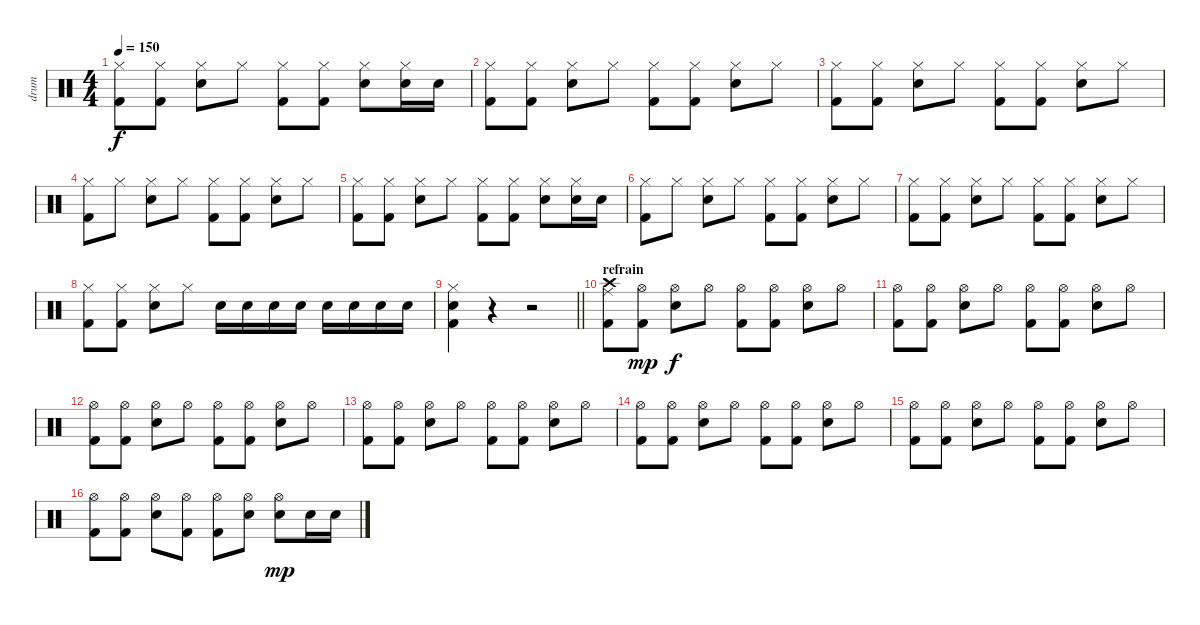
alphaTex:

\track ("drum" "drum") {instrument percussion}
\staff {score}
\articulation defaults
\ts (4 4)
\tempo 150
\clef neutral
\ks c
("Hi-Hat (closed)" "Kick (hit) 2").8{dy f} ("Hi-Hat (closed)" "Kick (hit) 2").8 ("Hi-Hat (closed)" "Snare (hit) 2").8 "Hi-Hat (closed)".8 ("Hi-Hat (closed)" "Kick (hit) 2").8 ("Hi-Hat (closed)" "Kick (hit) 2").8 ("Hi-Hat (closed)" "Snare (hit) 2").8 ("Hi-Hat (closed)" "Snare (hit) 2").16 "Snare (hit) 2".16 |
("Hi-Hat (closed)" "Kick (hit) 2").8 ("Hi-Hat (closed)" "Kick (hit) 2").8 ("Hi-Hat (closed)" "Snare (hit) 2").8 "Hi-Hat (closed)".8 ("Hi-Hat (closed)" "Kick (hit) 2").8 ("Hi-Hat (closed)" "Kick (hit) 2").8 ("Hi-Hat (closed)" "Snare (hit) 2").8 "Hi-Hat (closed)".8 |
("Hi-Hat (closed)" "Kick (hit) 2").8 ("Hi-Hat (closed)" "Kick (hit) 2").8 ("Hi-Hat (closed)" "Snare (hit) 2").8 "Hi-Hat (closed)".8 ("Hi-Hat (closed)" "Kick (hit) 2").8 ("Hi-Hat (closed)" "Kick (hit) 2").8 ("Hi-Hat (closed)" "Snare (hit) 2").8 "Hi-Hat (closed)".8 |
("Hi-Hat (closed)" "Kick (hit) 2").8 "Hi-Hat (closed)".8 ("Hi-Hat (closed)" "Snare (hit) 2").8 "Hi-Hat (closed)".8 ("Hi-Hat (closed)" "Kick (hit) 2").8 ("Hi-Hat (closed)" "Kick (hit) 2").8 ("Hi-Hat (closed)" "Snare (hit) 2").8 "Hi-Hat (closed)".8 |
("Hi-Hat (closed)" "Kick (hit) 2").8 ("Hi-Hat (closed)" "Kick (hit) 2").8 ("Hi-Hat (closed)" "Snare (hit) 2").8 "Hi-Hat (closed)".8 ("Hi-Hat (closed)" "Kick (hit) 2").8 ("Hi-Hat (closed)" "Kick (hit) 2").8 ("Hi-Hat (closed)" "Snare (hit) 2").8 ("Hi-Hat (closed)" "Snare (hit) 2").16 "Snare (hit) 2".16 |
("Hi-Hat (closed)" "Kick (hit) 2").8 "Hi-Hat (closed)".8 ("Hi-Hat (closed)" "Snare (hit) 2").8 "Hi-Hat (closed)".8 ("Hi-Hat (closed)" "Kick (hit) 2").8 ("Hi-Hat (closed)" "Kick (hit) 2").8 ("Hi-Hat (closed)" "Snare (hit) 2").8 "Hi-Hat (closed)".8 |
("Hi-Hat (closed)" "Kick (hit) 2").8 ("Hi-Hat (closed)" "Kick (hit) 2").8 ("Hi-Hat (closed)" "Snare (hit) 2").8 "Hi-Hat (closed)".8 ("Hi-Hat (closed)" "Kick (hit) 2").8 ("Hi-Hat (closed)" "Kick (hit) 2").8 ("Hi-Hat (closed)" "Snare (hit) 2").8 "Hi-Hat (closed)".8 |
("Hi-Hat (closed)" "Kick (hit) 2").8 ("Hi-Hat (closed)" "Kick (hit) 2").8 ("Hi-Hat (closed)" "Snare (hit) 2").8 "Hi-Hat (closed)".8 "Snare (hit) 2".16 "Snare (hit) 2".16 "Snare (hit) 2".16 "Snare (hit) 2".16 "Snare (hit) 2".16 "Snare (hit) 2".16 "Snare (hit) 2".16 "Snare (hit) 2".16 |
\barLineRight lightlight
("Hi-Hat (closed)" "Snare (hit) 2" "Kick (hit) 2").4 r.4 r.2 |
\section ("" "refrain")
("Ride (middle)" "Crash high (hit)" "Kick (hit) 2").8 ("Hi-Hat (open)" "Kick (hit) 2").8{dy mp} ("Hi-Hat (open)" "Snare (hit) 2").8{dy f} "Hi-Hat (open)".8 ("Hi-Hat (open)" "Kick (hit) 2").8 ("Hi-Hat (open)" "Kick (hit) 2").8 ("Hi-Hat (open)" "Snare (hit) 2").8 "Hi-Hat (open)".8 |
("Hi-Hat (open)" "Kick (hit) 2").8 ("Hi-Hat (open)" "Kick (hit) 2").8 ("Hi-Hat (open)" "Snare (hit) 2").8 "Hi-Hat (open)".8 ("Hi-Hat (open)" "Kick (hit) 2").8 ("Hi-Hat (open)" "Kick (hit) 2").8 ("Hi-Hat (open)" "Snare (hit) 2").8 "Hi-Hat (open)".8 |
("Hi-Hat (open)" "Kick (hit) 2").8 ("Hi-Hat (open)" "Kick (hit) 2").8 ("Hi-Hat (open)" "Snare (hit) 2").8 "Hi-Hat (open)".8 ("Hi-Hat (open)" "Kick (hit) 2").8 ("Hi-Hat (open)" "Kick (hit) 2").8 ("Hi-Hat (open)" "Snare (hit) 2").8 "Hi-Hat (open)".8 |
("Hi-Hat (open)" "Kick (hit) 2").8 ("Hi-Hat (open)" "Kick (hit) 2").8 ("Hi-Hat (open)" "Snare (hit) 2").8 "Hi-Hat (open)".8 ("Hi-Hat (open)" "Kick (hit) 2").8 ("Hi-Hat (open)" "Kick (hit) 2").8 ("Hi-Hat (open)" "Snare (hit) 2").8 "Hi-Hat (open)".8 |
("Hi-Hat (open)" "Kick (hit) 2").8 ("Hi-Hat (open)" "Kick (hit) 2").8 ("Hi-Hat (open)" "Snare (hit) 2").8 "Hi-Hat (open)".8 ("Hi-Hat (open)" "Kick (hit) 2").8 ("Hi-Hat (open)" "Kick (hit) 2").8 ("Hi-Hat (open)" "Snare (hit) 2").8 "Hi-Hat (open)".8 |
("Hi-Hat (open)" "Kick (hit) 2").8 ("Hi-Hat (open)" "Kick (hit) 2").8 ("Hi-Hat (open)" "Snare (hit) 2").8 "Hi-Hat (open)".8 ("Hi-Hat (open)" "Kick (hit) 2").8 ("Hi-Hat (open)" "Kick (hit) 2").8 ("Hi-Hat (open)" "Snare (hit) 2").8 "Hi-Hat (open)".8 |
("Hi-Hat (open)" "Kick (hit) 2").8 ("Hi-Hat (open)" "Kick (hit) 2").8 ("Hi-Hat (open)" "Snare (hit) 2").8 ("Hi-Hat (open)" "Kick (hit) 2").8 ("Hi-Hat (open)" "Kick (hit) 2").8 ("Hi-Hat (open)" "Snare (hit) 2").8 ("Hi-Hat (open)" "Snare (hit) 2").8{dy mp} "Snare (hit) 2".16 "Snare (hit) 2".16
